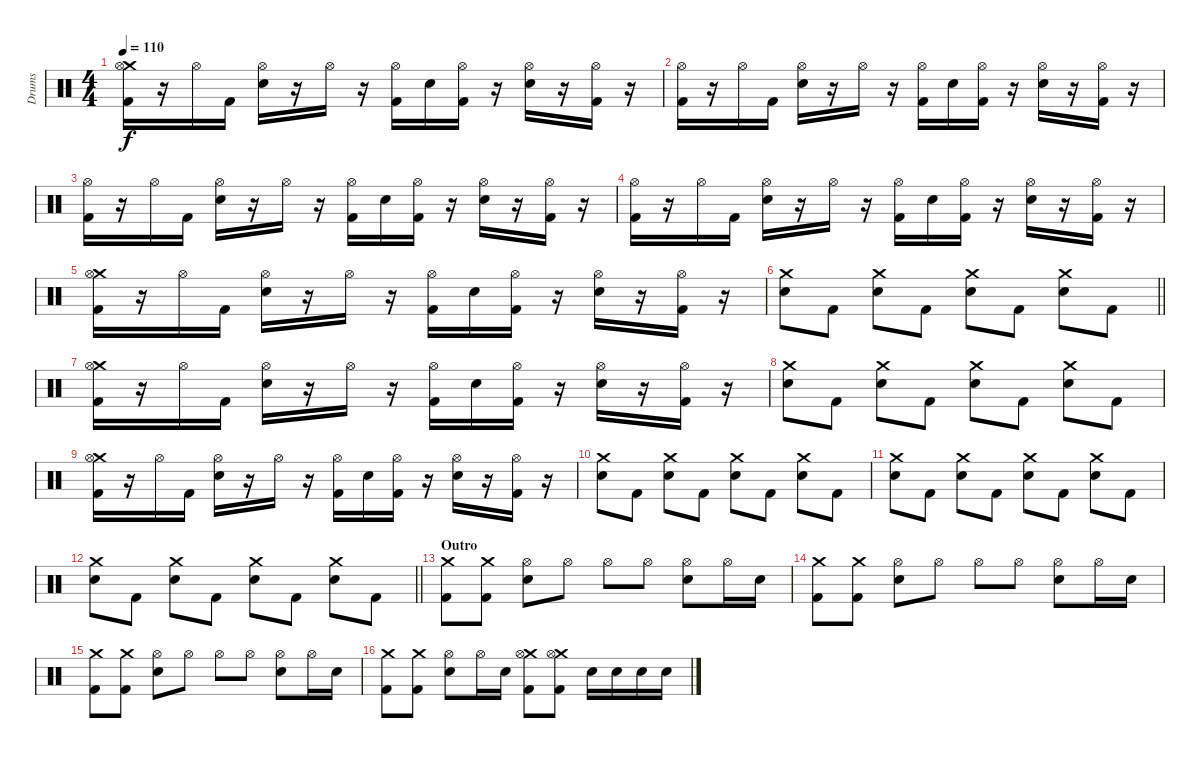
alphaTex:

\track ("Drums" "Drums") {instrument percussion}
\staff {score}
\articulation defaults
\ts (4 4)
\tempo 110
\clef neutral
\ks c
("Crash medium (hit)" "Hi-Hat (open)" "Kick (hit) 2").16{dy f} r.16 "Hi-Hat (open)".16 "Kick (hit) 2".16 ("Hi-Hat (open)" "Electric Snare (hit)").16 r.16 "Hi-Hat (open)".16 r.16 ("Hi-Hat (open)" "Kick (hit) 2").16 "Electric Snare (hit)".16 ("Hi-Hat (open)" "Kick (hit) 2").16 r.16 ("Hi-Hat (open)" "Electric Snare (hit)").16 r.16 ("Hi-Hat (open)" "Kick (hit) 2").16 r.16 |
("Hi-Hat (open)" "Kick (hit) 2").16 r.16 "Hi-Hat (open)".16 "Kick (hit) 2".16 ("Hi-Hat (open)" "Electric Snare (hit)").16 r.16 "Hi-Hat (open)".16 r.16 ("Hi-Hat (open)" "Kick (hit) 2").16 "Electric Snare (hit)".16 ("Hi-Hat (open)" "Kick (hit) 2").16 r.16 ("Hi-Hat (open)" "Electric Snare (hit)").16 r.16 ("Hi-Hat (open)" "Kick (hit) 2").16 r.16 |
("Hi-Hat (open)" "Kick (hit) 2").16 r.16 "Hi-Hat (open)".16 "Kick (hit) 2".16 ("Hi-Hat (open)" "Electric Snare (hit)").16 r.16 "Hi-Hat (open)".16 r.16 ("Hi-Hat (open)" "Kick (hit) 2").16 "Electric Snare (hit)".16 ("Hi-Hat (open)" "Kick (hit) 2").16 r.16 ("Hi-Hat (open)" "Electric Snare (hit)").16 r.16 ("Hi-Hat (open)" "Kick (hit) 2").16 r.16 |
("Hi-Hat (open)" "Kick (hit) 2").16 r.16 "Hi-Hat (open)".16 "Kick (hit) 2".16 ("Hi-Hat (open)" "Electric Snare (hit)").16 r.16 "Hi-Hat (open)".16 r.16 ("Hi-Hat (open)" "Kick (hit) 2").16 "Electric Snare (hit)".16 ("Hi-Hat (open)" "Kick (hit) 2").16 r.16 ("Hi-Hat (open)" "Electric Snare (hit)").16 r.16 ("Hi-Hat (open)" "Kick (hit) 2").16 r.16 |
("Crash medium (hit)" "Hi-Hat (open)" "Kick (hit) 2").16 r.16 "Hi-Hat (open)".16 "Kick (hit) 2".16 ("Hi-Hat (open)" "Electric Snare (hit)").16 r.16 "Hi-Hat (open)".16 r.16 ("Hi-Hat (open)" "Kick (hit) 2").16 "Electric Snare (hit)".16 ("Hi-Hat (open)" "Kick (hit) 2").16 r.16 ("Hi-Hat (open)" "Electric Snare (hit)").16 r.16 ("Hi-Hat (open)" "Kick (hit) 2").16 r.16 |
\barLineRight lightlight
("Crash medium (hit)" "Electric Snare (hit)").8 "Kick (hit) 2".8 ("Crash medium (hit)" "Electric Snare (hit)").8 "Kick (hit) 2".8 ("Crash medium (hit)" "Electric Snare (hit)").8 "Kick (hit) 2".8 ("Crash medium (hit)" "Electric Snare (hit)").8 "Kick (hit) 2".8 |
("Crash medium (hit)" "Hi-Hat (open)" "Kick (hit) 2").16 r.16 "Hi-Hat (open)".16 "Kick (hit) 2".16 ("Hi-Hat (open)" "Electric Snare (hit)").16 r.16 "Hi-Hat (open)".16 r.16 ("Hi-Hat (open)" "Kick (hit) 2").16 "Electric Snare (hit)".16 ("Hi-Hat (open)" "Kick (hit) 2").16 r.16 ("Hi-Hat (open)" "Electric Snare (hit)").16 r.16 ("Hi-Hat (open)" "Kick (hit) 2").16 r.16 |
("Crash medium (hit)" "Electric Snare (hit)").8 "Kick (hit) 2".8 ("Crash medium (hit)" "Electric Snare (hit)").8 "Kick (hit) 2".8 ("Crash medium (hit)" "Electric Snare (hit)").8 "Kick (hit) 2".8 ("Crash medium (hit)" "Electric Snare (hit)").8 "Kick (hit) 2".8 |
("Crash medium (hit)" "Hi-Hat (open)" "Kick (hit) 2").16 r.16 "Hi-Hat (open)".16 "Kick (hit) 2".16 ("Hi-Hat (open)" "Electric Snare (hit)").16 r.16 "Hi-Hat (open)".16 r.16 ("Hi-Hat (open)" "Kick (hit) 2").16 "Electric Snare (hit)".16 ("Hi-Hat (open)" "Kick (hit) 2").16 r.16 ("Hi-Hat (open)" "Electric Snare (hit)").16 r.16 ("Hi-Hat (open)" "Kick (hit) 2").16 r.16 |
("Crash medium (hit)" "Electric Snare (hit)").8 "Kick (hit) 2".8 ("Crash medium (hit)" "Electric Snare (hit)").8 "Kick (hit) 2".8 ("Crash medium (hit)" "Electric Snare (hit)").8 "Kick (hit) 2".8 ("Crash medium (hit)" "Electric Snare (hit)").8 "Kick (hit) 2".8 |
("Crash medium (hit)" "Electric Snare (hit)").8 "Kick (hit) 2".8 ("Crash medium (hit)" "Electric Snare (hit)").8 "Kick (hit) 2".8 ("Crash medium (hit)" "Electric Snare (hit)").8 "Kick (hit) 2".8 ("Crash medium (hit)" "Electric Snare (hit)").8 "Kick (hit) 2".8 |
\barLineRight lightlight
("Crash medium (hit)" "Electric Snare (hit)").8 "Kick (hit) 2".8 ("Crash medium (hit)" "Electric Snare (hit)").8 "Kick (hit) 2".8 ("Crash medium (hit)" "Electric Snare (hit)").8 "Kick (hit) 2".8 ("Crash medium (hit)" "Electric Snare (hit)").8 "Kick (hit) 2".8 |
\section ("" "Outro")
("Crash medium (hit)" "Kick (hit) 2").8 ("Crash medium (hit)" "Kick (hit) 2").8 ("Hi-Hat (open)" "Electric Snare (hit)").8 "Hi-Hat (open)".8 "Hi-Hat (open)".8 "Hi-Hat (open)".8 ("Hi-Hat (open)" "Electric Snare (hit)").8 "Hi-Hat (open)".16 "Electric Snare (hit)".16 |
("Crash medium (hit)" "Kick (hit) 2").8 ("Crash medium (hit)" "Kick (hit) 2").8 ("Hi-Hat (open)" "Electric Snare (hit)").8 "Hi-Hat (open)".8 "Hi-Hat (open)".8 "Hi-Hat (open)".8 ("Hi-Hat (open)" "Electric Snare (hit)").8 "Hi-Hat (open)".16 "Electric Snare (hit)".16 |
("Crash medium (hit)" "Kick (hit) 2").8 ("Crash medium (hit)" "Kick (hit) 2").8 ("Hi-Hat (open)" "Electric Snare (hit)").8 "Hi-Hat (open)".8 "Hi-Hat (open)".8 "Hi-Hat (open)".8 ("Hi-Hat (open)" "Electric Snare (hit)").8 "Hi-Hat (open)".16 "Electric Snare (hit)".16 |
("Crash medium (hit)" "Kick (hit) 2").8 ("Crash medium (hit)" "Kick (hit) 2").8 ("Hi-Hat (open)" "Electric Snare (hit)").8 "Hi-Hat (open)".16 "Electric Snare (hit)".16 ("Crash medium (hit)" "Hi-Hat (open)" "Kick (hit) 2").8 ("Crash medium (hit)" "Hi-Hat (open)" "Kick (hit) 2").8 "Electric Snare (hit)".16 "Electric Snare (hit)".16 "Electric Snare (hit)".16 "Electric Snare (hit)".16
